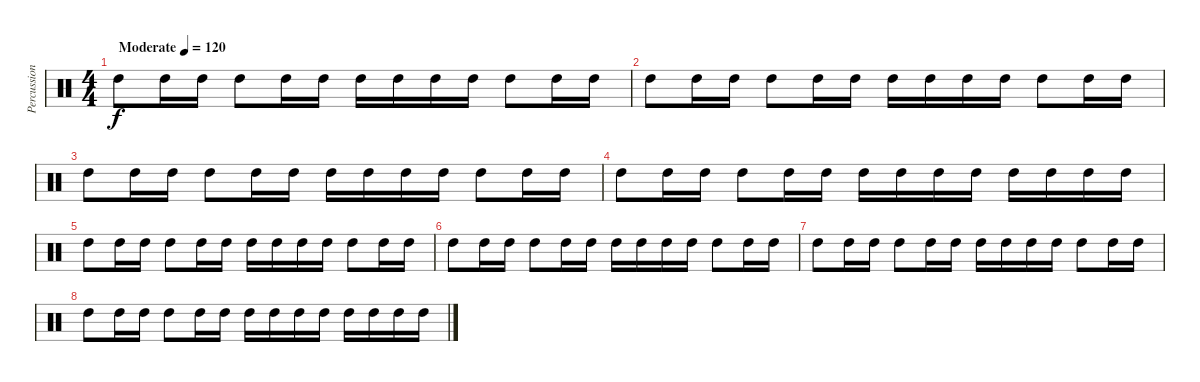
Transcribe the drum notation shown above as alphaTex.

\track ("Percussion" "Percussion") {instrument percussion}
\staff {score}
\articulation defaults
\ts (4 4)
\tempo (120 "Moderate")
\clef neutral
\ks c "High Tom (hit)".8{dy f} "High Tom (hit)".16 "High Tom (hit)".16 "High Tom (hit)".8 "High Tom (hit)".16 "High Tom (hit)".16 "High Tom (hit)".16 "High Tom (hit)".16 "High Tom (hit)".16 "High Tom (hit)".16 "High Tom (hit)".8 "High Tom (hit)".16 "High Tom (hit)".16
|
"High Tom (hit)".8 "High Tom (hit)".16 "High Tom (hit)".16 "High Tom (hit)".8 "High Tom (hit)".16 "High Tom (hit)".16 "High Tom (hit)".16 "High Tom (hit)".16 "High Tom (hit)".16 "High Tom (hit)".16 "High Tom (hit)".8 "High Tom (hit)".16 "High Tom (hit)".16 |
"High Tom (hit)".8 "High Tom (hit)".16 "High Tom (hit)".16 "High Tom (hit)".8 "High Tom (hit)".16 "High Tom (hit)".16 "High Tom (hit)".16 "High Tom (hit)".16 "High Tom (hit)".16 "High Tom (hit)".16 "High Tom (hit)".8 "High Tom (hit)".16 "High Tom (hit)".16 |
"High Tom (hit)".8 "High Tom (hit)".16 "High Tom (hit)".16 "High Tom (hit)".8 "High Tom (hit)".16 "High Tom (hit)".16 "High Tom (hit)".16 "High Tom (hit)".16 "High Tom (hit)".16 "High Tom (hit)".16 "High Tom (hit)".16 "High Tom (hit)".16 "High Tom (hit)".16 "High Tom (hit)".16 |
"High Tom (hit)".8 "High Tom (hit)".16 "High Tom (hit)".16 "High Tom (hit)".8 "High Tom (hit)".16 "High Tom (hit)".16 "High Tom (hit)".16 "High Tom (hit)".16 "High Tom (hit)".16 "High Tom (hit)".16 "High Tom (hit)".8 "High Tom (hit)".16 "High Tom (hit)".16 |
"High Tom (hit)".8 "High Tom (hit)".16 "High Tom (hit)".16 "High Tom (hit)".8 "High Tom (hit)".16 "High Tom (hit)".16 "High Tom (hit)".16 "High Tom (hit)".16 "High Tom (hit)".16 "High Tom (hit)".16 "High Tom (hit)".8 "High Tom (hit)".16 "High Tom (hit)".16 |
"High Tom (hit)".8 "High Tom (hit)".16 "High Tom (hit)".16 "High Tom (hit)".8 "High Tom (hit)".16 "High Tom (hit)".16 "High Tom (hit)".16 "High Tom (hit)".16 "High Tom (hit)".16 "High Tom (hit)".16 "High Tom (hit)".8 "High Tom (hit)".16 "High Tom (hit)".16 |
"High Tom (hit)".8 "High Tom (hit)".16 "High Tom (hit)".16 "High Tom (hit)".8 "High Tom (hit)".16 "High Tom (hit)".16 "High Tom (hit)".16 "High Tom (hit)".16 "High Tom (hit)".16 "High Tom (hit)".16 "High Tom (hit)".16 "High Tom (hit)".16 "High Tom (hit)".16 "High Tom (hit)".16
